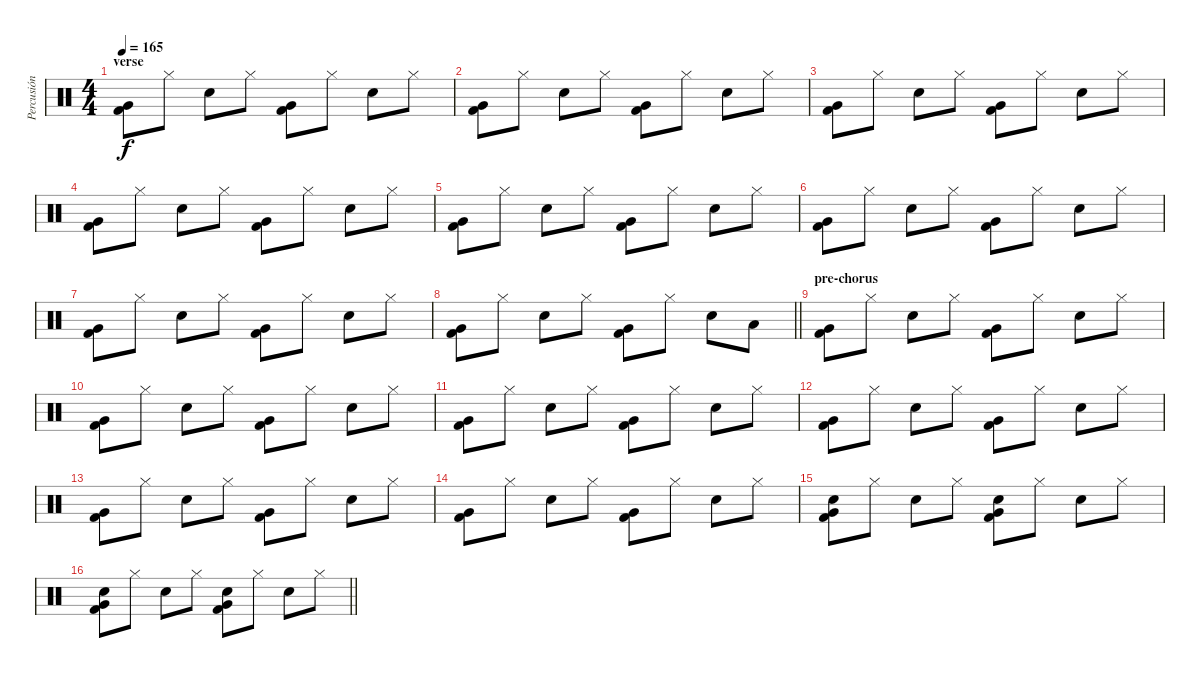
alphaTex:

\track ("Percusión" "Percusión") {instrument percussion}
\staff {score}
\articulation defaults
\ts (4 4)
\section ("" "verse")
\tempo 165
\clef neutral
\ks c
("Kick (hit) 2" "Very Low Tom (hit)").8{dy f} "Hi-Hat (closed)".8 "Electric Snare (hit)".8 "Hi-Hat (closed)".8 ("Kick (hit) 2" "Very Low Tom (hit)").8 "Hi-Hat (closed)".8 "Electric Snare (hit)".8 "Hi-Hat (closed)".8 |
("Kick (hit) 2" "Very Low Tom (hit)").8 "Hi-Hat (closed)".8 "Electric Snare (hit)".8 "Hi-Hat (closed)".8 ("Kick (hit) 2" "Very Low Tom (hit)").8 "Hi-Hat (closed)".8 "Electric Snare (hit)".8 "Hi-Hat (closed)".8 |
("Kick (hit) 2" "Very Low Tom (hit)").8 "Hi-Hat (closed)".8 "Electric Snare (hit)".8 "Hi-Hat (closed)".8 ("Kick (hit) 2" "Very Low Tom (hit)").8 "Hi-Hat (closed)".8 "Electric Snare (hit)".8 "Hi-Hat (closed)".8 |
("Kick (hit) 2" "Very Low Tom (hit)").8 "Hi-Hat (closed)".8 "Electric Snare (hit)".8 "Hi-Hat (closed)".8 ("Kick (hit) 2" "Very Low Tom (hit)").8 "Hi-Hat (closed)".8 "Electric Snare (hit)".8 "Hi-Hat (closed)".8 |
("Kick (hit) 2" "Very Low Tom (hit)").8 "Hi-Hat (closed)".8 "Electric Snare (hit)".8 "Hi-Hat (closed)".8 ("Kick (hit) 2" "Very Low Tom (hit)").8 "Hi-Hat (closed)".8 "Electric Snare (hit)".8 "Hi-Hat (closed)".8 |
("Kick (hit) 2" "Very Low Tom (hit)").8 "Hi-Hat (closed)".8 "Electric Snare (hit)".8 "Hi-Hat (closed)".8 ("Kick (hit) 2" "Very Low Tom (hit)").8 "Hi-Hat (closed)".8 "Electric Snare (hit)".8 "Hi-Hat (closed)".8 |
("Kick (hit) 2" "Very Low Tom (hit)").8 "Hi-Hat (closed)".8 "Electric Snare (hit)".8 "Hi-Hat (closed)".8 ("Kick (hit) 2" "Very Low Tom (hit)").8 "Hi-Hat (closed)".8 "Electric Snare (hit)".8 "Hi-Hat (closed)".8 |
\barLineRight lightlight
("Kick (hit) 2" "Very Low Tom (hit)").8 "Hi-Hat (closed)".8 "Electric Snare (hit)".8 "Hi-Hat (closed)".8 ("Kick (hit) 2" "Very Low Tom (hit)").8 "Hi-Hat (closed)".8 "Electric Snare (hit)".8 "Low Tom (hit)".8 |
\section ("" "pre-chorus")
("Kick (hit) 2" "Very Low Tom (hit)").8 "Hi-Hat (closed)".8 "Electric Snare (hit)".8 "Hi-Hat (closed)".8 ("Kick (hit) 2" "Very Low Tom (hit)").8 "Hi-Hat (closed)".8 "Electric Snare (hit)".8 "Hi-Hat (closed)".8 |
("Kick (hit) 2" "Very Low Tom (hit)").8 "Hi-Hat (closed)".8 "Electric Snare (hit)".8 "Hi-Hat (closed)".8 ("Kick (hit) 2" "Very Low Tom (hit)").8 "Hi-Hat (closed)".8 "Electric Snare (hit)".8 "Hi-Hat (closed)".8 |
("Kick (hit) 2" "Very Low Tom (hit)").8 "Hi-Hat (closed)".8 "Electric Snare (hit)".8 "Hi-Hat (closed)".8 ("Kick (hit) 2" "Very Low Tom (hit)").8 "Hi-Hat (closed)".8 "Electric Snare (hit)".8 "Hi-Hat (closed)".8 |
("Kick (hit) 2" "Very Low Tom (hit)").8 "Hi-Hat (closed)".8 "Electric Snare (hit)".8 "Hi-Hat (closed)".8 ("Kick (hit) 2" "Very Low Tom (hit)").8 "Hi-Hat (closed)".8 "Electric Snare (hit)".8 "Hi-Hat (closed)".8 |
("Kick (hit) 2" "Very Low Tom (hit)").8 "Hi-Hat (closed)".8 "Electric Snare (hit)".8 "Hi-Hat (closed)".8 ("Kick (hit) 2" "Very Low Tom (hit)").8 "Hi-Hat (closed)".8 "Electric Snare (hit)".8 "Hi-Hat (closed)".8 |
("Kick (hit) 2" "Very Low Tom (hit)").8 "Hi-Hat (closed)".8 "Electric Snare (hit)".8 "Hi-Hat (closed)".8 ("Kick (hit) 2" "Very Low Tom (hit)").8 "Hi-Hat (closed)".8 "Electric Snare (hit)".8 "Hi-Hat (closed)".8 |
("Electric Snare (hit)" "Kick (hit) 2" "Very Low Tom (hit)").8 "Hi-Hat (closed)".8 "Electric Snare (hit)".8 "Hi-Hat (closed)".8 ("Electric Snare (hit)" "Kick (hit) 2" "Very Low Tom (hit)").8 "Hi-Hat (closed)".8 "Electric Snare (hit)".8 "Hi-Hat (closed)".8 |
\barLineRight lightlight
("Electric Snare (hit)" "Kick (hit) 2" "Very Low Tom (hit)").8 "Hi-Hat (closed)".8 "Electric Snare (hit)".8 "Hi-Hat (closed)".8 ("Electric Snare (hit)" "Kick (hit) 2" "Very Low Tom (hit)").8 "Hi-Hat (closed)".8 "Electric Snare (hit)".8 "Hi-Hat (closed)".8
